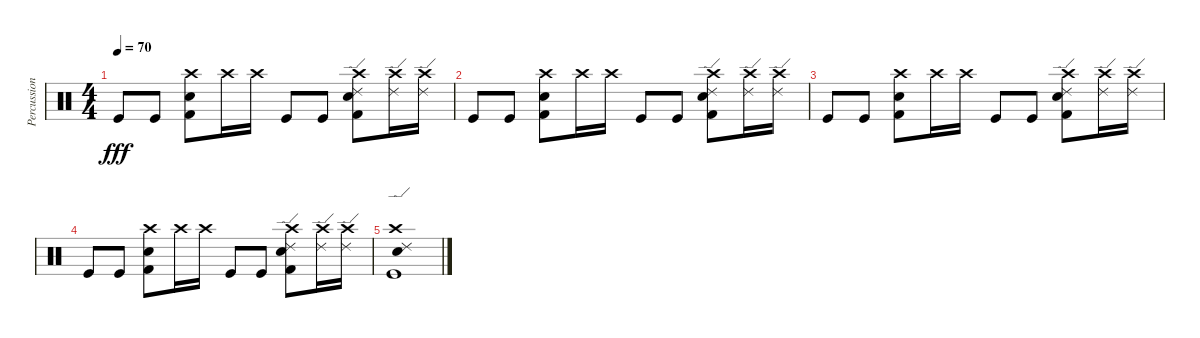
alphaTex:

\track ("Percussion" "Percussion") {instrument percussion}
\staff {score}
\articulation defaults
\ts (4 4)
\tempo 70
\clef neutral
\ks c "Kick (hit)".8{dy fff} "Kick (hit)".8
("Metronome (bell)" "Crash high (hit)" "Kick (hit) 2").8 "Crash high (hit)".16 "Crash high (hit)".16 "Kick (hit)".8 "Kick (hit)".8 ("Metronome (bell)" "Ride (edge) 2" "Kick (hit) 2" "Crash high (hit)").8 ("Ride (edge) 2" "Crash high (hit)").16 ("Ride (edge) 2" "Crash high (hit)").16 |
"Kick (hit)".8 "Kick (hit)".8 ("Metronome (bell)" "Crash high (hit)" "Kick (hit) 2").8 "Crash high (hit)".16 "Crash high (hit)".16 "Kick (hit)".8 "Kick (hit)".8 ("Metronome (bell)" "Ride (edge) 2" "Kick (hit) 2" "Crash high (hit)").8 ("Ride (edge) 2" "Crash high (hit)").16 ("Ride (edge) 2" "Crash high (hit)").16 |
"Kick (hit)".8 "Kick (hit)".8 ("Metronome (bell)" "Crash high (hit)" "Kick (hit) 2").8 "Crash high (hit)".16 "Crash high (hit)".16 "Kick (hit)".8 "Kick (hit)".8 ("Metronome (bell)" "Ride (edge) 2" "Kick (hit) 2" "Crash high (hit)").8 ("Ride (edge) 2" "Crash high (hit)").16 ("Ride (edge) 2" "Crash high (hit)").16 |
"Kick (hit)".8 "Kick (hit)".8 ("Metronome (bell)" "Crash high (hit)" "Kick (hit) 2").8 "Crash high (hit)".16 "Crash high (hit)".16 "Kick (hit)".8 "Kick (hit)".8 ("Metronome (bell)" "Ride (edge) 2" "Kick (hit) 2" "Crash high (hit)").8 ("Ride (edge) 2" "Crash high (hit)").16 ("Ride (edge) 2" "Crash high (hit)").16 |
("Crash high (hit)" "Ride (edge) 2" "Kick (hit)" "Metronome (bell)").1
